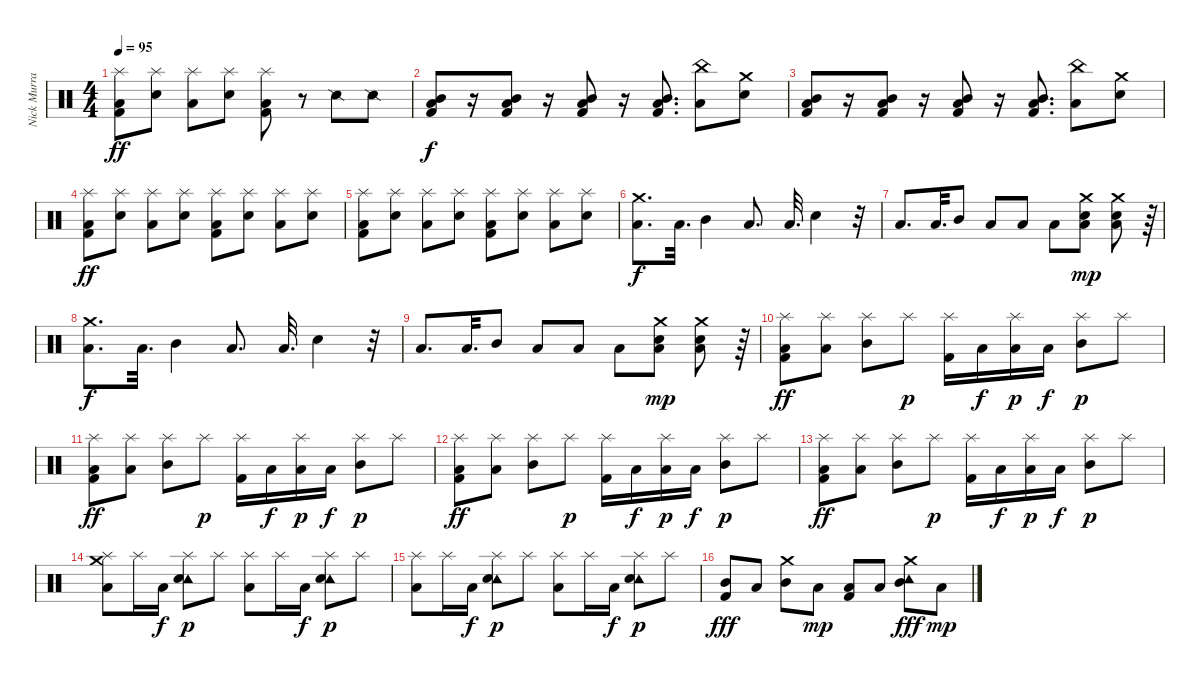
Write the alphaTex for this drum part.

\track ("Nick Murray" "Nick Murra") {instrument percussion}
\staff {score}
\articulation defaults
\ts (4 4)
\tempo 95
\clef neutral
\ks c
("Splash (hit)" "Low Floor Tom (hit)" "Kick (hit) 2").8{dy ff} ("Splash (hit)" "Electric Snare (hit)").8 ("Splash (hit)" "Low Floor Tom (hit)").8 ("Splash (hit)" "Electric Snare (hit)").8 ("Splash (hit)" "Low Floor Tom (hit)" "Kick (hit) 2").8 r.8 "Snare (side stick) 2".8 "Snare (side stick) 2".8 |
("Mid Tom (hit)" "Low Floor Tom (hit)" "Kick (hit) 2").8{dy f} r.16 ("Mid Tom (hit)" "Low Floor Tom (hit)" "Kick (hit) 2").8 r.16 ("Mid Tom (hit)" "Low Floor Tom (hit)" "Kick (hit) 2").8 r.16 ("Mid Tom (hit)" "Low Floor Tom (hit)" "Kick (hit) 2").8{d} ("China (hit)" "Low Floor Tom (hit)").8 ("Crash medium (hit)" "Electric Snare (hit)").8 |
("Mid Tom (hit)" "Low Floor Tom (hit)" "Kick (hit) 2").8 r.16 ("Mid Tom (hit)" "Low Floor Tom (hit)" "Kick (hit) 2").8 r.16 ("Mid Tom (hit)" "Low Floor Tom (hit)" "Kick (hit) 2").8 r.16 ("Mid Tom (hit)" "Low Floor Tom (hit)" "Kick (hit) 2").8{d} ("China (hit)" "Low Floor Tom (hit)").8 ("Crash medium (hit)" "Electric Snare (hit)").8 |
("Splash (hit)" "Low Floor Tom (hit)" "Kick (hit) 2").8{dy ff} ("Splash (hit)" "Electric Snare (hit)").8 ("Splash (hit)" "Low Floor Tom (hit)").8 ("Splash (hit)" "Electric Snare (hit)").8 ("Splash (hit)" "Low Floor Tom (hit)" "Kick (hit) 2").8 ("Splash (hit)" "Electric Snare (hit)").8 ("Splash (hit)" "Low Floor Tom (hit)").8 ("Splash (hit)" "Electric Snare (hit)").8 |
("Splash (hit)" "Low Floor Tom (hit)" "Kick (hit) 2").8 ("Splash (hit)" "Electric Snare (hit)").8 ("Splash (hit)" "Low Floor Tom (hit)").8 ("Splash (hit)" "Electric Snare (hit)").8 ("Splash (hit)" "Low Floor Tom (hit)" "Kick (hit) 2").8 ("Splash (hit)" "Electric Snare (hit)").8 ("Splash (hit)" "Low Floor Tom (hit)").8 ("Splash (hit)" "Electric Snare (hit)").8 |
("Crash medium (hit)" "Low Floor Tom (hit)").8{d dy f} "Low Floor Tom (hit)".32{d} "Mid Tom (hit)".4 "Low Floor Tom (hit)".8{d} "Low Floor Tom (hit)".32{d} "Electric Snare (hit)".4 r.32 |
"Low Floor Tom (hit)".8{d} "Low Floor Tom (hit)".32{d} "Mid Tom (hit)".8 "Low Floor Tom (hit)".8 "Low Floor Tom (hit)".8 "Low Floor Tom (hit)".8 ("Crash medium (hit)" "Electric Snare (hit)" "Low Floor Tom (hit)").8{dy mp} ("Crash medium (hit)" "Electric Snare (hit)" "Low Floor Tom (hit)").8 r.64 |
("Crash medium (hit)" "Low Floor Tom (hit)").8{d dy f} "Low Floor Tom (hit)".32{d} "Mid Tom (hit)".4 "Low Floor Tom (hit)".8{d} "Low Floor Tom (hit)".32{d} "Electric Snare (hit)".4 r.32 |
"Low Floor Tom (hit)".8{d} "Low Floor Tom (hit)".32{d} "Mid Tom (hit)".8 "Low Floor Tom (hit)".8 "Low Floor Tom (hit)".8 "Low Floor Tom (hit)".8 ("Crash medium (hit)" "Electric Snare (hit)" "Low Floor Tom (hit)").8{dy mp} ("Crash medium (hit)" "Electric Snare (hit)" "Low Floor Tom (hit)").8 r.64 |
("Splash (hit)" "Low Floor Tom (hit)" "Kick (hit) 2").8{dy ff} ("Splash (hit)" "Low Floor Tom (hit)").8 ("Splash (hit)" "Mid Tom (hit)").8 "Splash (hit)".8{dy p} ("Splash (hit)" "Kick (hit) 2").16 "Low Floor Tom (hit)".16{dy f} ("Splash (hit)" "Low Floor Tom (hit)").16{dy p} "Low Floor Tom (hit)".16{dy f} ("Splash (hit)" "Mid Tom (hit)").8{dy p} "Splash (hit)".8 |
("Splash (hit)" "Low Floor Tom (hit)" "Kick (hit) 2").8{dy ff} ("Splash (hit)" "Low Floor Tom (hit)").8 ("Splash (hit)" "Mid Tom (hit)").8 "Splash (hit)".8{dy p} ("Splash (hit)" "Kick (hit) 2").16 "Low Floor Tom (hit)".16{dy f} ("Splash (hit)" "Low Floor Tom (hit)").16{dy p} "Low Floor Tom (hit)".16{dy f} ("Splash (hit)" "Mid Tom (hit)").8{dy p} "Splash (hit)".8 |
("Splash (hit)" "Low Floor Tom (hit)" "Kick (hit) 2").8{dy ff} ("Splash (hit)" "Low Floor Tom (hit)").8 ("Splash (hit)" "Mid Tom (hit)").8 "Splash (hit)".8{dy p} ("Splash (hit)" "Kick (hit) 2").16 "Low Floor Tom (hit)".16{dy f} ("Splash (hit)" "Low Floor Tom (hit)").16{dy p} "Low Floor Tom (hit)".16{dy f} ("Splash (hit)" "Mid Tom (hit)").8{dy p} "Splash (hit)".8 |
("Splash (hit)" "Low Floor Tom (hit)" "Kick (hit) 2").8{dy ff} ("Splash (hit)" "Low Floor Tom (hit)").8 ("Splash (hit)" "Mid Tom (hit)").8 "Splash (hit)".8{dy p} ("Splash (hit)" "Kick (hit) 2").16 "Low Floor Tom (hit)".16{dy f} ("Splash (hit)" "Low Floor Tom (hit)").16{dy p} "Low Floor Tom (hit)".16{dy f} ("Splash (hit)" "Mid Tom (hit)").8{dy p} "Splash (hit)".8 |
("Crash medium (hit)" "Splash (hit)" "Low Floor Tom (hit)").8 "Splash (hit)".16 "Low Floor Tom (hit)".16{dy f} ("Tambourine (hit)" "Splash (hit)" "Electric Snare (hit)").8{dy p} "Splash (hit)".8 ("Splash (hit)" "Low Floor Tom (hit)").8 "Splash (hit)".16 "Low Floor Tom (hit)".16{dy f} ("Tambourine (hit)" "Splash (hit)" "Electric Snare (hit)").8{dy p} "Splash (hit)".8 |
("Splash (hit)" "Low Floor Tom (hit)").8 "Splash (hit)".16 "Low Floor Tom (hit)".16{dy f} ("Tambourine (hit)" "Splash (hit)" "Electric Snare (hit)").8{dy p} "Splash (hit)".8 ("Splash (hit)" "Low Floor Tom (hit)").8 "Splash (hit)".16 "Low Floor Tom (hit)".16{dy f} ("Tambourine (hit)" "Splash (hit)" "Electric Snare (hit)").8{dy p} "Splash (hit)".8 |
("Mid Tom (hit)" "Kick (hit) 2").8{dy fff} "Low Floor Tom (hit)".8 ("Crash medium (hit)" "Mid Tom (hit)").8 "Low Floor Tom (hit)".8{dy mp} ("Low Floor Tom (hit)" "Kick (hit) 2").8 "Low Floor Tom (hit)".8 ("Crash medium (hit)" "Tambourine (hit)" "Mid Tom (hit)").8{dy fff} "Low Floor Tom (hit)".8{dy mp}
